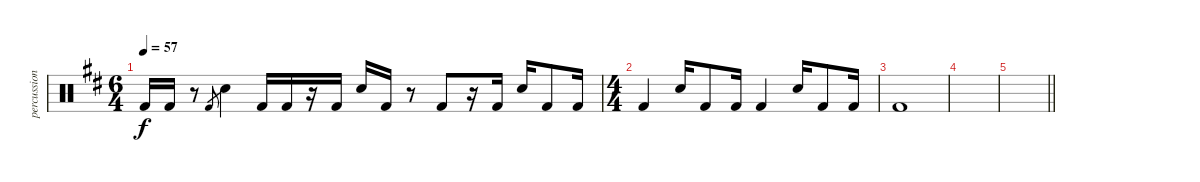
\track ("percussion" "percussion") {instrument percussion}
\staff {score}
\articulation defaults
\ts (6 4)
\tempo 57
\clef neutral
\ks d "Kick (hit) 2".16{dy f} "Kick (hit) 2".16
r.8 "Kick (hit) 2".8{gr} "Electric Snare (hit)".4 "Kick (hit) 2".16 "Kick (hit) 2".16 r.16 "Kick (hit) 2".16 "Electric Snare (hit)".16 "Kick (hit) 2".16 r.8 "Kick (hit) 2".8 r.16 "Kick (hit) 2".16 "Electric Snare (hit)".16 "Kick (hit) 2".8 "Kick (hit) 2".16 |
\ts (4 4)
"Kick (hit) 2".4 "Electric Snare (hit)".16 "Kick (hit) 2".8 "Kick (hit) 2".16 "Kick (hit) 2".4 "Electric Snare (hit)".16 "Kick (hit) 2".8 "Kick (hit) 2".16 |
"Kick (hit) 2".1 |
|
\barLineRight lightlight
